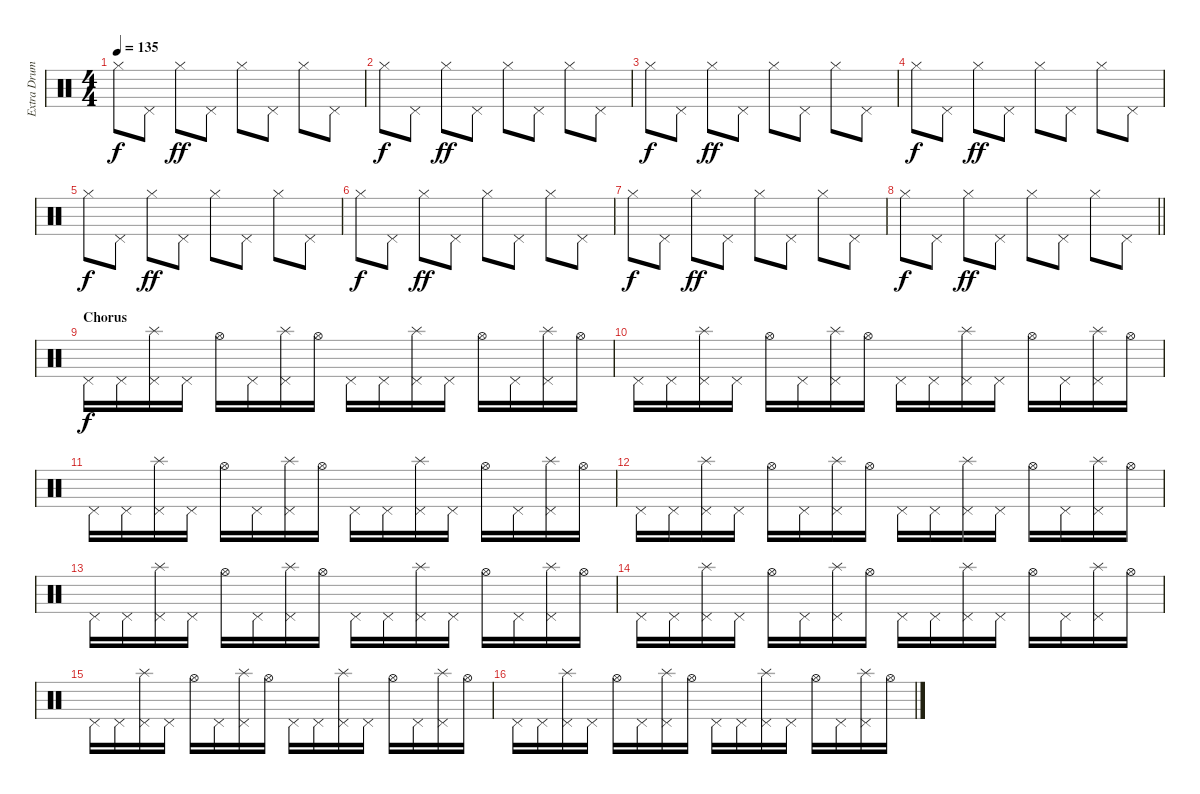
\track ("Extra Drums" "Extra Drum") {instrument percussion}
\staff {score}
\articulation defaults
\ts (4 4)
\tempo 135
\clef neutral
\ks c "Hi-Hat (closed)".8{dy f} "Pedal Hi-Hat (hit)".8 "Hi-Hat (closed)".8{dy ff} "Pedal Hi-Hat (hit)".8 "Hi-Hat (closed)".8 "Pedal Hi-Hat (hit)".8 "Hi-Hat (closed)".8 "Pedal Hi-Hat (hit)".8
|
"Hi-Hat (closed)".8{dy f} "Pedal Hi-Hat (hit)".8 "Hi-Hat (closed)".8{dy ff} "Pedal Hi-Hat (hit)".8 "Hi-Hat (closed)".8 "Pedal Hi-Hat (hit)".8 "Hi-Hat (closed)".8 "Pedal Hi-Hat (hit)".8 |
"Hi-Hat (closed)".8{dy f} "Pedal Hi-Hat (hit)".8 "Hi-Hat (closed)".8{dy ff} "Pedal Hi-Hat (hit)".8 "Hi-Hat (closed)".8 "Pedal Hi-Hat (hit)".8 "Hi-Hat (closed)".8 "Pedal Hi-Hat (hit)".8 |
"Hi-Hat (closed)".8{dy f} "Pedal Hi-Hat (hit)".8 "Hi-Hat (closed)".8{dy ff} "Pedal Hi-Hat (hit)".8 "Hi-Hat (closed)".8 "Pedal Hi-Hat (hit)".8 "Hi-Hat (closed)".8 "Pedal Hi-Hat (hit)".8 |
"Hi-Hat (closed)".8{dy f} "Pedal Hi-Hat (hit)".8 "Hi-Hat (closed)".8{dy ff} "Pedal Hi-Hat (hit)".8 "Hi-Hat (closed)".8 "Pedal Hi-Hat (hit)".8 "Hi-Hat (closed)".8 "Pedal Hi-Hat (hit)".8 |
"Hi-Hat (closed)".8{dy f} "Pedal Hi-Hat (hit)".8 "Hi-Hat (closed)".8{dy ff} "Pedal Hi-Hat (hit)".8 "Hi-Hat (closed)".8 "Pedal Hi-Hat (hit)".8 "Hi-Hat (closed)".8 "Pedal Hi-Hat (hit)".8 |
"Hi-Hat (closed)".8{dy f} "Pedal Hi-Hat (hit)".8 "Hi-Hat (closed)".8{dy ff} "Pedal Hi-Hat (hit)".8 "Hi-Hat (closed)".8 "Pedal Hi-Hat (hit)".8 "Hi-Hat (closed)".8 "Pedal Hi-Hat (hit)".8 |
\barLineRight lightlight "Hi-Hat (closed)".8{dy f} "Pedal Hi-Hat (hit)".8 "Hi-Hat (closed)".8{dy ff} "Pedal Hi-Hat (hit)".8 "Hi-Hat (closed)".8 "Pedal Hi-Hat (hit)".8 "Hi-Hat (closed)".8 "Pedal Hi-Hat (hit)".8
|
\section ("" "Chorus")
"Pedal Hi-Hat (hit)".16{dy f} "Pedal Hi-Hat (hit)".16 ("Pedal Hi-Hat (hit)" "Splash (hit)").16 "Pedal Hi-Hat (hit)".16 "Hi-Hat (open)".16 "Pedal Hi-Hat (hit)".16 ("Pedal Hi-Hat (hit)" "Splash (hit)").16 "Hi-Hat (open)".16 "Pedal Hi-Hat (hit)".16 "Pedal Hi-Hat (hit)".16 ("Pedal Hi-Hat (hit)" "Splash (hit)").16 "Pedal Hi-Hat (hit)".16 "Hi-Hat (open)".16 "Pedal Hi-Hat (hit)".16 ("Pedal Hi-Hat (hit)" "Splash (hit)").16 "Hi-Hat (open)".16 |
"Pedal Hi-Hat (hit)".16 "Pedal Hi-Hat (hit)".16 ("Pedal Hi-Hat (hit)" "Splash (hit)").16 "Pedal Hi-Hat (hit)".16 "Hi-Hat (open)".16 "Pedal Hi-Hat (hit)".16 ("Pedal Hi-Hat (hit)" "Splash (hit)").16 "Hi-Hat (open)".16 "Pedal Hi-Hat (hit)".16 "Pedal Hi-Hat (hit)".16 ("Pedal Hi-Hat (hit)" "Splash (hit)").16 "Pedal Hi-Hat (hit)".16 "Hi-Hat (open)".16 "Pedal Hi-Hat (hit)".16 ("Pedal Hi-Hat (hit)" "Splash (hit)").16 "Hi-Hat (open)".16 |
"Pedal Hi-Hat (hit)".16 "Pedal Hi-Hat (hit)".16 ("Pedal Hi-Hat (hit)" "Splash (hit)").16 "Pedal Hi-Hat (hit)".16 "Hi-Hat (open)".16 "Pedal Hi-Hat (hit)".16 ("Pedal Hi-Hat (hit)" "Splash (hit)").16 "Hi-Hat (open)".16 "Pedal Hi-Hat (hit)".16 "Pedal Hi-Hat (hit)".16 ("Pedal Hi-Hat (hit)" "Splash (hit)").16 "Pedal Hi-Hat (hit)".16 "Hi-Hat (open)".16 "Pedal Hi-Hat (hit)".16 ("Pedal Hi-Hat (hit)" "Splash (hit)").16 "Hi-Hat (open)".16 |
"Pedal Hi-Hat (hit)".16 "Pedal Hi-Hat (hit)".16 ("Pedal Hi-Hat (hit)" "Splash (hit)").16 "Pedal Hi-Hat (hit)".16 "Hi-Hat (open)".16 "Pedal Hi-Hat (hit)".16 ("Pedal Hi-Hat (hit)" "Splash (hit)").16 "Hi-Hat (open)".16 "Pedal Hi-Hat (hit)".16 "Pedal Hi-Hat (hit)".16 ("Pedal Hi-Hat (hit)" "Splash (hit)").16 "Pedal Hi-Hat (hit)".16 "Hi-Hat (open)".16 "Pedal Hi-Hat (hit)".16 ("Pedal Hi-Hat (hit)" "Splash (hit)").16 "Hi-Hat (open)".16 |
"Pedal Hi-Hat (hit)".16 "Pedal Hi-Hat (hit)".16 ("Pedal Hi-Hat (hit)" "Splash (hit)").16 "Pedal Hi-Hat (hit)".16 "Hi-Hat (open)".16 "Pedal Hi-Hat (hit)".16 ("Pedal Hi-Hat (hit)" "Splash (hit)").16 "Hi-Hat (open)".16 "Pedal Hi-Hat (hit)".16 "Pedal Hi-Hat (hit)".16 ("Pedal Hi-Hat (hit)" "Splash (hit)").16 "Pedal Hi-Hat (hit)".16 "Hi-Hat (open)".16 "Pedal Hi-Hat (hit)".16 ("Pedal Hi-Hat (hit)" "Splash (hit)").16 "Hi-Hat (open)".16 |
"Pedal Hi-Hat (hit)".16 "Pedal Hi-Hat (hit)".16 ("Pedal Hi-Hat (hit)" "Splash (hit)").16 "Pedal Hi-Hat (hit)".16 "Hi-Hat (open)".16 "Pedal Hi-Hat (hit)".16 ("Pedal Hi-Hat (hit)" "Splash (hit)").16 "Hi-Hat (open)".16 "Pedal Hi-Hat (hit)".16 "Pedal Hi-Hat (hit)".16 ("Pedal Hi-Hat (hit)" "Splash (hit)").16 "Pedal Hi-Hat (hit)".16 "Hi-Hat (open)".16 "Pedal Hi-Hat (hit)".16 ("Pedal Hi-Hat (hit)" "Splash (hit)").16 "Hi-Hat (open)".16 |
"Pedal Hi-Hat (hit)".16 "Pedal Hi-Hat (hit)".16 ("Pedal Hi-Hat (hit)" "Splash (hit)").16 "Pedal Hi-Hat (hit)".16 "Hi-Hat (open)".16 "Pedal Hi-Hat (hit)".16 ("Pedal Hi-Hat (hit)" "Splash (hit)").16 "Hi-Hat (open)".16 "Pedal Hi-Hat (hit)".16 "Pedal Hi-Hat (hit)".16 ("Pedal Hi-Hat (hit)" "Splash (hit)").16 "Pedal Hi-Hat (hit)".16 "Hi-Hat (open)".16 "Pedal Hi-Hat (hit)".16 ("Pedal Hi-Hat (hit)" "Splash (hit)").16 "Hi-Hat (open)".16 |
"Pedal Hi-Hat (hit)".16 "Pedal Hi-Hat (hit)".16 ("Pedal Hi-Hat (hit)" "Splash (hit)").16 "Pedal Hi-Hat (hit)".16 "Hi-Hat (open)".16 "Pedal Hi-Hat (hit)".16 ("Pedal Hi-Hat (hit)" "Splash (hit)").16 "Hi-Hat (open)".16 "Pedal Hi-Hat (hit)".16 "Pedal Hi-Hat (hit)".16 ("Pedal Hi-Hat (hit)" "Splash (hit)").16 "Pedal Hi-Hat (hit)".16 "Hi-Hat (open)".16 "Pedal Hi-Hat (hit)".16 ("Pedal Hi-Hat (hit)" "Splash (hit)").16 "Hi-Hat (open)".16
